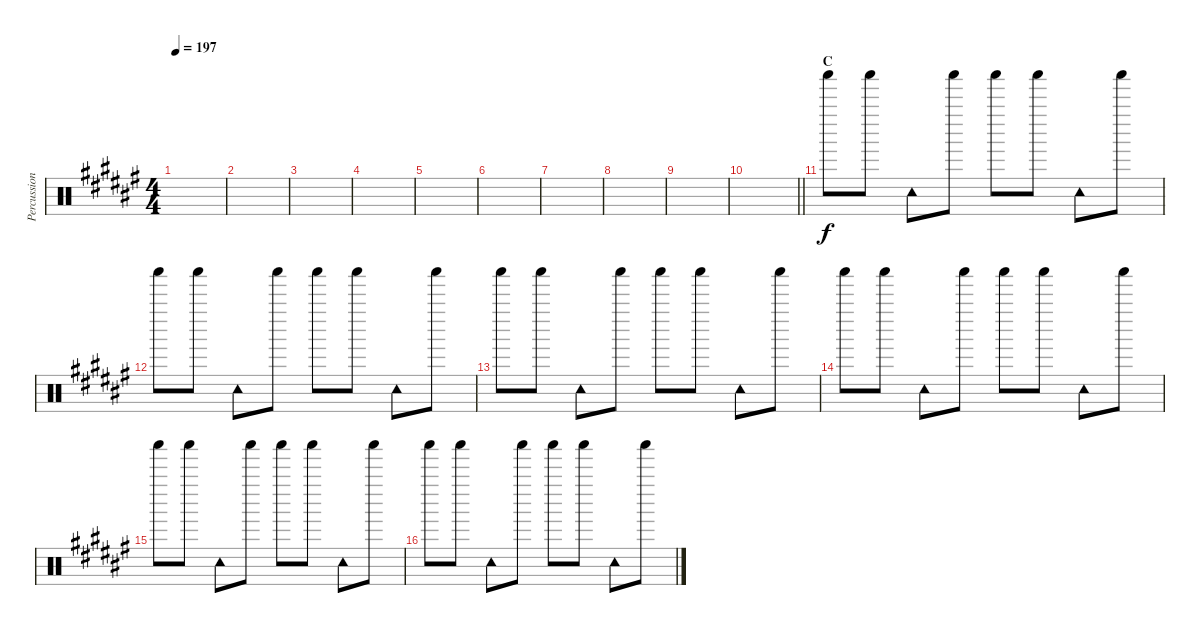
\track ("Percussion (Tainaka Ritsu)" "Percussion") {instrument percussion}
\staff {score}
\articulation defaults
\ts (4 4)
\tempo 197
\clef neutral
\ks f#
|
|
|
|
|
|
|
|
|
\barLineRight lightlight
|
\section ("" "C")
"Shaker (hit)".8 "Shaker (hit)".8 "Tambourine (hit)".8 "Shaker (hit)".8 "Shaker (hit)".8 "Shaker (hit)".8 "Tambourine (hit)".8 "Shaker (hit)".8 |
"Shaker (hit)".8 "Shaker (hit)".8 "Tambourine (hit)".8 "Shaker (hit)".8 "Shaker (hit)".8 "Shaker (hit)".8 "Tambourine (hit)".8 "Shaker (hit)".8 |
"Shaker (hit)".8 "Shaker (hit)".8 "Tambourine (hit)".8 "Shaker (hit)".8 "Shaker (hit)".8 "Shaker (hit)".8 "Tambourine (hit)".8 "Shaker (hit)".8 |
"Shaker (hit)".8 "Shaker (hit)".8 "Tambourine (hit)".8 "Shaker (hit)".8 "Shaker (hit)".8 "Shaker (hit)".8 "Tambourine (hit)".8 "Shaker (hit)".8 |
"Shaker (hit)".8 "Shaker (hit)".8 "Tambourine (hit)".8 "Shaker (hit)".8 "Shaker (hit)".8 "Shaker (hit)".8 "Tambourine (hit)".8 "Shaker (hit)".8 |
"Shaker (hit)".8 "Shaker (hit)".8 "Tambourine (hit)".8 "Shaker (hit)".8 "Shaker (hit)".8 "Shaker (hit)".8 "Tambourine (hit)".8 "Shaker (hit)".8
